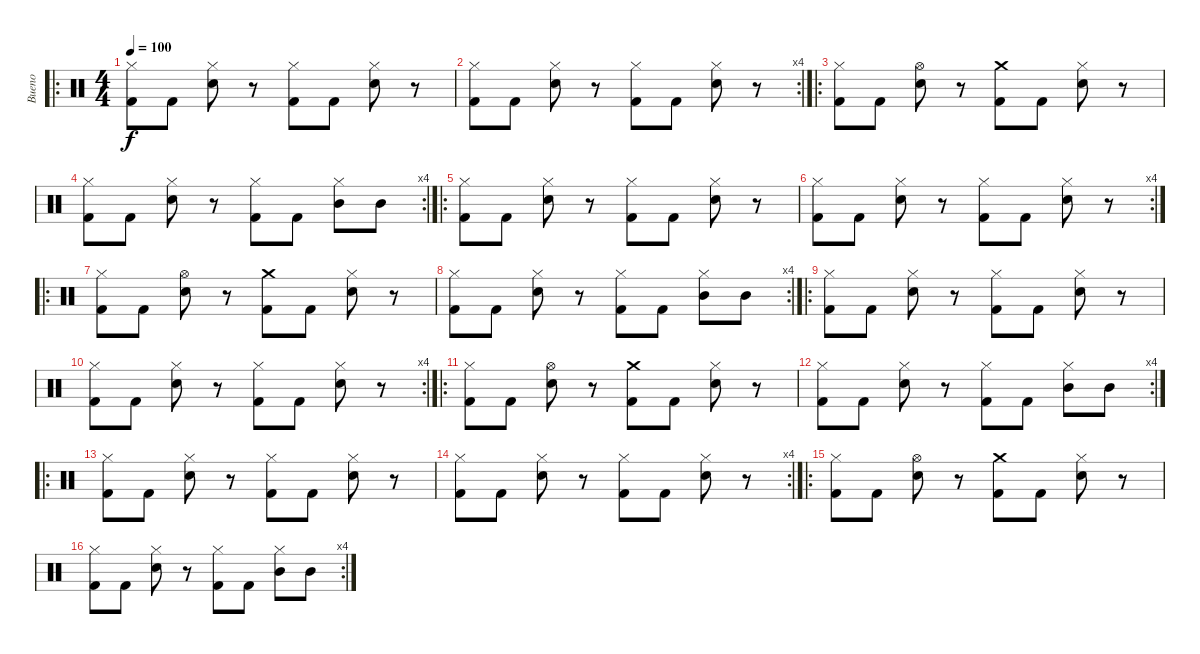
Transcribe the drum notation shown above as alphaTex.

\track ("Bueno" "Bueno") {instrument percussion}
\staff {score}
\articulation defaults
\ro
\ts (4 4)
\tempo 100
\clef neutral
\ks c
("Kick (hit) 2" "Hi-Hat (closed)").8{dy f} "Kick (hit) 2".8 ("Electric Snare (hit)" "Hi-Hat (closed)").8 r.8 ("Kick (hit) 2" "Hi-Hat (closed)").8 "Kick (hit) 2".8 ("Electric Snare (hit)" "Hi-Hat (closed)").8 r.8 |
\rc 4
("Kick (hit) 2" "Hi-Hat (closed)").8 "Kick (hit) 2".8 ("Electric Snare (hit)" "Hi-Hat (closed)").8 r.8 ("Kick (hit) 2" "Hi-Hat (closed)").8 "Kick (hit) 2".8 ("Electric Snare (hit)" "Hi-Hat (closed)").8 r.8 |
\ro
("Kick (hit) 2" "Hi-Hat (closed)").8 "Kick (hit) 2".8 ("Electric Snare (hit)" "Hi-Hat (open)").8 r.8 ("Kick (hit) 2" "Crash medium (hit)").8 "Kick (hit) 2".8 ("Electric Snare (hit)" "Hi-Hat (closed)").8 r.8 |
\rc 4
("Kick (hit) 2" "Hi-Hat (closed)").8 "Kick (hit) 2".8 ("Electric Snare (hit)" "Hi-Hat (closed)").8 r.8 ("Kick (hit) 2" "Hi-Hat (closed)").8 "Kick (hit) 2".8 ("Mid Tom (hit)" "Hi-Hat (closed)").8 "Mid Tom (hit)".8 |
\ro
("Kick (hit) 2" "Hi-Hat (closed)").8 "Kick (hit) 2".8 ("Electric Snare (hit)" "Hi-Hat (closed)").8 r.8 ("Kick (hit) 2" "Hi-Hat (closed)").8 "Kick (hit) 2".8 ("Electric Snare (hit)" "Hi-Hat (closed)").8 r.8 |
\rc 4
("Kick (hit) 2" "Hi-Hat (closed)").8 "Kick (hit) 2".8 ("Electric Snare (hit)" "Hi-Hat (closed)").8 r.8 ("Kick (hit) 2" "Hi-Hat (closed)").8 "Kick (hit) 2".8 ("Electric Snare (hit)" "Hi-Hat (closed)").8 r.8 |
\ro
("Kick (hit) 2" "Hi-Hat (closed)").8 "Kick (hit) 2".8 ("Electric Snare (hit)" "Hi-Hat (open)").8 r.8 ("Kick (hit) 2" "Crash medium (hit)").8 "Kick (hit) 2".8 ("Electric Snare (hit)" "Hi-Hat (closed)").8 r.8 |
\rc 4
("Kick (hit) 2" "Hi-Hat (closed)").8 "Kick (hit) 2".8 ("Electric Snare (hit)" "Hi-Hat (closed)").8 r.8 ("Kick (hit) 2" "Hi-Hat (closed)").8 "Kick (hit) 2".8 ("Mid Tom (hit)" "Hi-Hat (closed)").8 "Mid Tom (hit)".8 |
\ro
("Kick (hit) 2" "Hi-Hat (closed)").8 "Kick (hit) 2".8 ("Electric Snare (hit)" "Hi-Hat (closed)").8 r.8 ("Kick (hit) 2" "Hi-Hat (closed)").8 "Kick (hit) 2".8 ("Electric Snare (hit)" "Hi-Hat (closed)").8 r.8 |
\rc 4
("Kick (hit) 2" "Hi-Hat (closed)").8 "Kick (hit) 2".8 ("Electric Snare (hit)" "Hi-Hat (closed)").8 r.8 ("Kick (hit) 2" "Hi-Hat (closed)").8 "Kick (hit) 2".8 ("Electric Snare (hit)" "Hi-Hat (closed)").8 r.8 |
\ro
("Kick (hit) 2" "Hi-Hat (closed)").8 "Kick (hit) 2".8 ("Electric Snare (hit)" "Hi-Hat (open)").8 r.8 ("Kick (hit) 2" "Crash medium (hit)").8 "Kick (hit) 2".8 ("Electric Snare (hit)" "Hi-Hat (closed)").8 r.8 |
\rc 4
("Kick (hit) 2" "Hi-Hat (closed)").8 "Kick (hit) 2".8 ("Electric Snare (hit)" "Hi-Hat (closed)").8 r.8 ("Kick (hit) 2" "Hi-Hat (closed)").8 "Kick (hit) 2".8 ("Mid Tom (hit)" "Hi-Hat (closed)").8 "Mid Tom (hit)".8 |
\ro
("Kick (hit) 2" "Hi-Hat (closed)").8 "Kick (hit) 2".8 ("Electric Snare (hit)" "Hi-Hat (closed)").8 r.8 ("Kick (hit) 2" "Hi-Hat (closed)").8 "Kick (hit) 2".8 ("Electric Snare (hit)" "Hi-Hat (closed)").8 r.8 |
\rc 4
("Kick (hit) 2" "Hi-Hat (closed)").8 "Kick (hit) 2".8 ("Electric Snare (hit)" "Hi-Hat (closed)").8 r.8 ("Kick (hit) 2" "Hi-Hat (closed)").8 "Kick (hit) 2".8 ("Electric Snare (hit)" "Hi-Hat (closed)").8 r.8 |
\ro
("Kick (hit) 2" "Hi-Hat (closed)").8 "Kick (hit) 2".8 ("Electric Snare (hit)" "Hi-Hat (open)").8 r.8 ("Kick (hit) 2" "Crash medium (hit)").8 "Kick (hit) 2".8 ("Electric Snare (hit)" "Hi-Hat (closed)").8 r.8 |
\rc 4
("Kick (hit) 2" "Hi-Hat (closed)").8 "Kick (hit) 2".8 ("Electric Snare (hit)" "Hi-Hat (closed)").8 r.8 ("Kick (hit) 2" "Hi-Hat (closed)").8 "Kick (hit) 2".8 ("Mid Tom (hit)" "Hi-Hat (closed)").8 "Mid Tom (hit)".8
